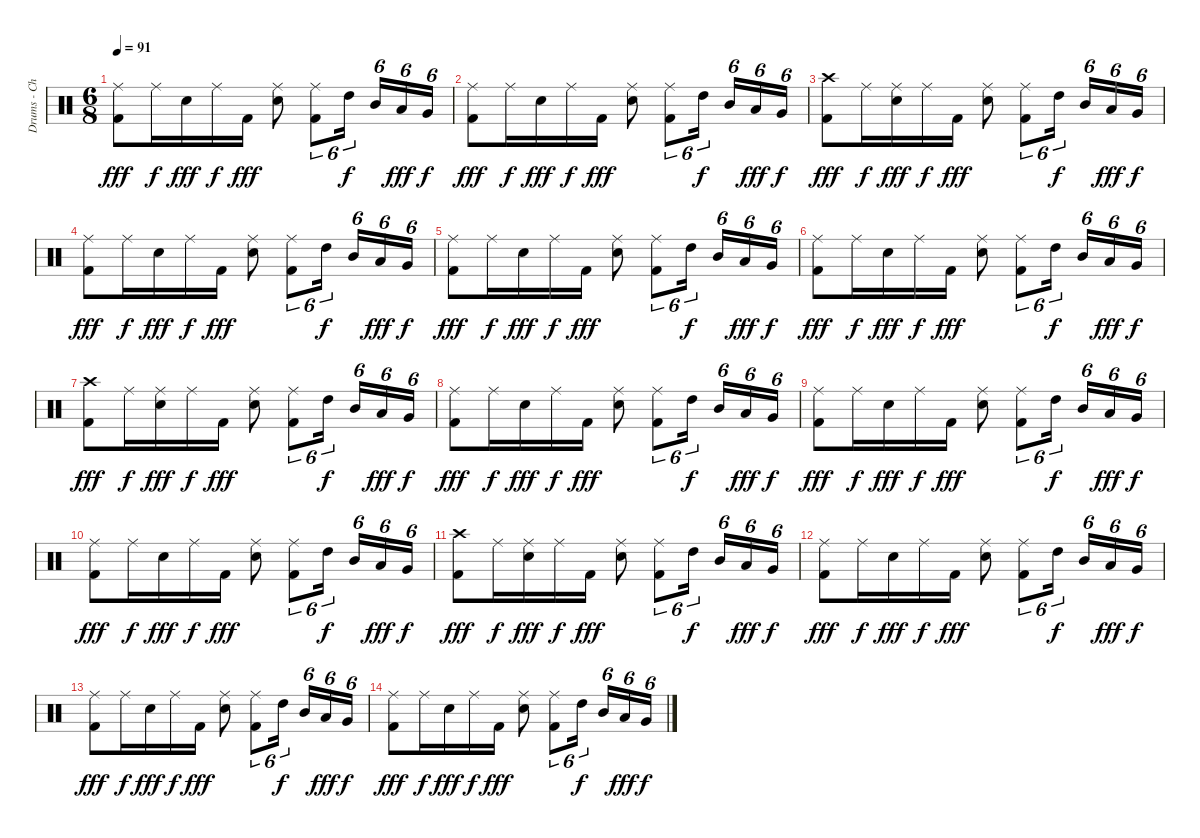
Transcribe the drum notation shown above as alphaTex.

\track ("Drums - Chad" "Drums - Ch") {instrument percussion}
\staff {score}
\articulation defaults
\ts (6 8)
\tempo 91
\clef neutral
\ks c
("Ride (middle)" "Kick (hit) 2").8{dy fff} "Ride (middle)".16{dy f} "Electric Snare (hit)".16{dy fff} "Ride (middle)".16{dy f} "Kick (hit) 2".16{dy fff} ("Ride (middle)" "Electric Snare (hit)").8 ("Ride (middle)" "Kick (hit) 2").8{tu (6 4)} "High Tom (hit)".16{tu (6 4) dy f} "Mid Tom (hit)".16{tu (6 4)} "Low Tom (hit)".16{tu (6 4) dy fff} "Very Low Tom (hit)".16{tu (6 4) dy f} |
("Ride (middle)" "Kick (hit) 2").8{dy fff} "Ride (middle)".16{dy f} "Electric Snare (hit)".16{dy fff} "Ride (middle)".16{dy f} "Kick (hit) 2".16{dy fff} ("Ride (middle)" "Electric Snare (hit)").8 ("Ride (middle)" "Kick (hit) 2").8{tu (6 4)} "High Tom (hit)".16{tu (6 4) dy f} "Mid Tom (hit)".16{tu (6 4)} "Low Tom (hit)".16{tu (6 4) dy fff} "Very Low Tom (hit)".16{tu (6 4) dy f} |
("Crash high (hit)" "Kick (hit) 2").8{dy fff} "Ride (middle)".16{dy f} ("Ride (middle)" "Electric Snare (hit)").16{dy fff} "Ride (middle)".16{dy f} "Kick (hit) 2".16{dy fff} ("Ride (middle)" "Electric Snare (hit)").8 ("Ride (middle)" "Kick (hit) 2").8{tu (6 4)} "High Tom (hit)".16{tu (6 4) dy f} "Mid Tom (hit)".16{tu (6 4)} "Low Tom (hit)".16{tu (6 4) dy fff} "Very Low Tom (hit)".16{tu (6 4) dy f} |
("Ride (middle)" "Kick (hit) 2").8{dy fff} "Ride (middle)".16{dy f} "Electric Snare (hit)".16{dy fff} "Ride (middle)".16{dy f} "Kick (hit) 2".16{dy fff} ("Ride (middle)" "Electric Snare (hit)").8 ("Ride (middle)" "Kick (hit) 2").8{tu (6 4)} "High Tom (hit)".16{tu (6 4) dy f} "Mid Tom (hit)".16{tu (6 4)} "Low Tom (hit)".16{tu (6 4) dy fff} "Very Low Tom (hit)".16{tu (6 4) dy f} |
("Ride (middle)" "Kick (hit) 2").8{dy fff} "Ride (middle)".16{dy f} "Electric Snare (hit)".16{dy fff} "Ride (middle)".16{dy f} "Kick (hit) 2".16{dy fff} ("Ride (middle)" "Electric Snare (hit)").8 ("Ride (middle)" "Kick (hit) 2").8{tu (6 4)} "High Tom (hit)".16{tu (6 4) dy f} "Mid Tom (hit)".16{tu (6 4)} "Low Tom (hit)".16{tu (6 4) dy fff} "Very Low Tom (hit)".16{tu (6 4) dy f} |
("Ride (middle)" "Kick (hit) 2").8{dy fff} "Ride (middle)".16{dy f} "Electric Snare (hit)".16{dy fff} "Ride (middle)".16{dy f} "Kick (hit) 2".16{dy fff} ("Ride (middle)" "Electric Snare (hit)").8 ("Ride (middle)" "Kick (hit) 2").8{tu (6 4)} "High Tom (hit)".16{tu (6 4) dy f} "Mid Tom (hit)".16{tu (6 4)} "Low Tom (hit)".16{tu (6 4) dy fff} "Very Low Tom (hit)".16{tu (6 4) dy f} |
("Crash high (hit)" "Kick (hit) 2").8{dy fff volume 12} "Ride (middle)".16{dy f} ("Ride (middle)" "Electric Snare (hit)").16{dy fff} "Ride (middle)".16{dy f} "Kick (hit) 2".16{dy fff} ("Ride (middle)" "Electric Snare (hit)").8 ("Ride (middle)" "Kick (hit) 2").8{tu (6 4)} "High Tom (hit)".16{tu (6 4) dy f} "Mid Tom (hit)".16{tu (6 4)} "Low Tom (hit)".16{tu (6 4) dy fff} "Very Low Tom (hit)".16{tu (6 4) dy f} |
("Ride (middle)" "Kick (hit) 2").8{dy fff} "Ride (middle)".16{dy f} "Electric Snare (hit)".16{dy fff} "Ride (middle)".16{dy f} "Kick (hit) 2".16{dy fff} ("Ride (middle)" "Electric Snare (hit)").8 ("Ride (middle)" "Kick (hit) 2").8{tu (6 4)} "High Tom (hit)".16{tu (6 4) dy f} "Mid Tom (hit)".16{tu (6 4)} "Low Tom (hit)".16{tu (6 4) dy fff} "Very Low Tom (hit)".16{tu (6 4) dy f} |
("Ride (middle)" "Kick (hit) 2").8{dy fff} "Ride (middle)".16{dy f} "Electric Snare (hit)".16{dy fff} "Ride (middle)".16{dy f} "Kick (hit) 2".16{dy fff} ("Ride (middle)" "Electric Snare (hit)").8 ("Ride (middle)" "Kick (hit) 2").8{tu (6 4) volume 9} "High Tom (hit)".16{tu (6 4) dy f} "Mid Tom (hit)".16{tu (6 4)} "Low Tom (hit)".16{tu (6 4) dy fff} "Very Low Tom (hit)".16{tu (6 4) dy f} |
("Ride (middle)" "Kick (hit) 2").8{dy fff} "Ride (middle)".16{dy f} "Electric Snare (hit)".16{dy fff} "Ride (middle)".16{dy f} "Kick (hit) 2".16{dy fff} ("Ride (middle)" "Electric Snare (hit)").8 ("Ride (middle)" "Kick (hit) 2").8{tu (6 4)} "High Tom (hit)".16{tu (6 4) dy f} "Mid Tom (hit)".16{tu (6 4)} "Low Tom (hit)".16{tu (6 4) dy fff} "Very Low Tom (hit)".16{tu (6 4) dy f} |
("Crash high (hit)" "Kick (hit) 2").8{dy fff} "Ride (middle)".16{dy f} ("Ride (middle)" "Electric Snare (hit)").16{dy fff} "Ride (middle)".16{dy f} "Kick (hit) 2".16{dy fff} ("Ride (middle)" "Electric Snare (hit)").8 ("Ride (middle)" "Kick (hit) 2").8{tu (6 4)} "High Tom (hit)".16{tu (6 4) dy f} "Mid Tom (hit)".16{tu (6 4)} "Low Tom (hit)".16{tu (6 4) dy fff} "Very Low Tom (hit)".16{tu (6 4) dy f} |
("Ride (middle)" "Kick (hit) 2").8{dy fff} "Ride (middle)".16{dy f} "Electric Snare (hit)".16{dy fff} "Ride (middle)".16{dy f volume 2} "Kick (hit) 2".16{dy fff} ("Ride (middle)" "Electric Snare (hit)").8 ("Ride (middle)" "Kick (hit) 2").8{tu (6 4)} "High Tom (hit)".16{tu (6 4) dy f} "Mid Tom (hit)".16{tu (6 4)} "Low Tom (hit)".16{tu (6 4) dy fff} "Very Low Tom (hit)".16{tu (6 4) dy f} |
("Ride (middle)" "Kick (hit) 2").8{dy fff} "Ride (middle)".16{dy f} "Electric Snare (hit)".16{dy fff} "Ride (middle)".16{dy f} "Kick (hit) 2".16{dy fff} ("Ride (middle)" "Electric Snare (hit)").8 ("Ride (middle)" "Kick (hit) 2").8{tu (6 4)} "High Tom (hit)".16{tu (6 4) dy f} "Mid Tom (hit)".16{tu (6 4)} "Low Tom (hit)".16{tu (6 4) dy fff} "Very Low Tom (hit)".16{tu (6 4) dy f} |
("Ride (middle)" "Kick (hit) 2").8{dy fff} "Ride (middle)".16{dy f} "Electric Snare (hit)".16{dy fff} "Ride (middle)".16{dy f} "Kick (hit) 2".16{dy fff} ("Ride (middle)" "Electric Snare (hit)").8 ("Ride (middle)" "Kick (hit) 2").8{tu (6 4)} "High Tom (hit)".16{tu (6 4) dy f} "Mid Tom (hit)".16{tu (6 4)} "Low Tom (hit)".16{tu (6 4) dy fff} "Very Low Tom (hit)".16{tu (6 4) dy f}
